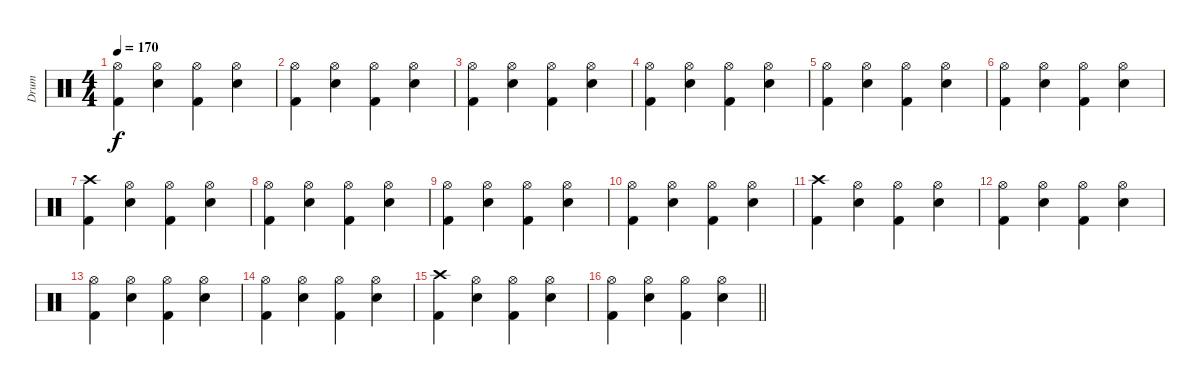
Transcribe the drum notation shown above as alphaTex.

\track ("Drum" "Drum") {instrument percussion}
\staff {score}
\articulation defaults
\ts (4 4)
\tempo 170
\clef neutral
\ks c
("Hi-Hat (open)" "Kick (hit) 2").4{dy f} ("Hi-Hat (open)" "Electric Snare (hit)").4 ("Hi-Hat (open)" "Kick (hit) 2").4 ("Hi-Hat (open)" "Electric Snare (hit)").4 |
("Hi-Hat (open)" "Kick (hit) 2").4 ("Hi-Hat (open)" "Electric Snare (hit)").4 ("Hi-Hat (open)" "Kick (hit) 2").4 ("Hi-Hat (open)" "Electric Snare (hit)").4 |
("Hi-Hat (open)" "Kick (hit) 2").4 ("Hi-Hat (open)" "Electric Snare (hit)").4 ("Hi-Hat (open)" "Kick (hit) 2").4 ("Hi-Hat (open)" "Electric Snare (hit)").4 |
("Hi-Hat (open)" "Kick (hit) 2").4 ("Hi-Hat (open)" "Electric Snare (hit)").4 ("Hi-Hat (open)" "Kick (hit) 2").4 ("Hi-Hat (open)" "Electric Snare (hit)").4 |
("Hi-Hat (open)" "Kick (hit) 2").4 ("Hi-Hat (open)" "Electric Snare (hit)").4 ("Hi-Hat (open)" "Kick (hit) 2").4 ("Hi-Hat (open)" "Electric Snare (hit)").4 |
("Hi-Hat (open)" "Kick (hit) 2").4 ("Hi-Hat (open)" "Electric Snare (hit)").4 ("Hi-Hat (open)" "Kick (hit) 2").4 ("Hi-Hat (open)" "Electric Snare (hit)").4 |
("Crash high (hit)" "Kick (hit) 2").4 ("Hi-Hat (open)" "Electric Snare (hit)").4 ("Hi-Hat (open)" "Kick (hit) 2").4 ("Hi-Hat (open)" "Electric Snare (hit)").4 |
("Hi-Hat (open)" "Kick (hit) 2").4 ("Hi-Hat (open)" "Electric Snare (hit)").4 ("Hi-Hat (open)" "Kick (hit) 2").4 ("Hi-Hat (open)" "Electric Snare (hit)").4 |
("Hi-Hat (open)" "Kick (hit) 2").4 ("Hi-Hat (open)" "Electric Snare (hit)").4 ("Hi-Hat (open)" "Kick (hit) 2").4 ("Hi-Hat (open)" "Electric Snare (hit)").4 |
("Hi-Hat (open)" "Kick (hit) 2").4 ("Hi-Hat (open)" "Electric Snare (hit)").4 ("Hi-Hat (open)" "Kick (hit) 2").4 ("Hi-Hat (open)" "Electric Snare (hit)").4 |
("Crash high (hit)" "Kick (hit) 2").4 ("Hi-Hat (open)" "Electric Snare (hit)").4 ("Hi-Hat (open)" "Kick (hit) 2").4 ("Hi-Hat (open)" "Electric Snare (hit)").4 |
("Hi-Hat (open)" "Kick (hit) 2").4 ("Hi-Hat (open)" "Electric Snare (hit)").4 ("Hi-Hat (open)" "Kick (hit) 2").4 ("Hi-Hat (open)" "Electric Snare (hit)").4 |
("Hi-Hat (open)" "Kick (hit) 2").4 ("Hi-Hat (open)" "Electric Snare (hit)").4 ("Hi-Hat (open)" "Kick (hit) 2").4 ("Hi-Hat (open)" "Electric Snare (hit)").4 |
("Hi-Hat (open)" "Kick (hit) 2").4 ("Hi-Hat (open)" "Electric Snare (hit)").4 ("Hi-Hat (open)" "Kick (hit) 2").4 ("Hi-Hat (open)" "Electric Snare (hit)").4 |
("Crash high (hit)" "Kick (hit) 2").4 ("Hi-Hat (open)" "Electric Snare (hit)").4 ("Hi-Hat (open)" "Kick (hit) 2").4 ("Hi-Hat (open)" "Electric Snare (hit)").4 |
\barLineRight lightlight
("Hi-Hat (open)" "Kick (hit) 2").4 ("Hi-Hat (open)" "Electric Snare (hit)").4 ("Hi-Hat (open)" "Kick (hit) 2").4 ("Hi-Hat (open)" "Electric Snare (hit)").4
